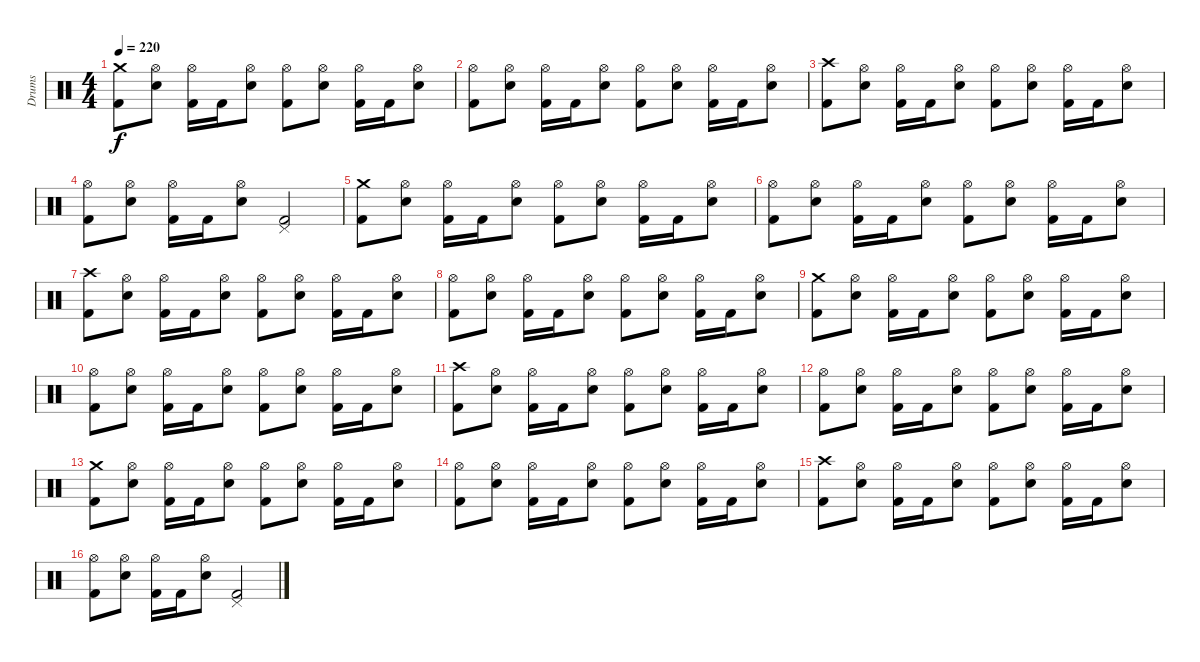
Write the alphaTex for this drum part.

\track ("Drums" "Drums") {instrument percussion}
\staff {score}
\articulation defaults
\ts (4 4)
\tempo 220
\clef neutral
\ks c
("Crash medium (hit)" "Kick (hit) 2").8{dy f} ("Hi-Hat (open)" "Electric Snare (hit)").8 ("Hi-Hat (open)" "Kick (hit) 2").16 "Kick (hit) 2".16 ("Hi-Hat (open)" "Electric Snare (hit)").8 ("Hi-Hat (open)" "Kick (hit) 2").8 ("Hi-Hat (open)" "Electric Snare (hit)").8 ("Hi-Hat (open)" "Kick (hit) 2").16 "Kick (hit) 2".16 ("Hi-Hat (open)" "Electric Snare (hit)").8 |
("Hi-Hat (open)" "Kick (hit) 2").8 ("Hi-Hat (open)" "Electric Snare (hit)").8 ("Hi-Hat (open)" "Kick (hit) 2").16 "Kick (hit) 2".16 ("Hi-Hat (open)" "Electric Snare (hit)").8 ("Hi-Hat (open)" "Kick (hit) 2").8 ("Hi-Hat (open)" "Electric Snare (hit)").8 ("Hi-Hat (open)" "Kick (hit) 2").16 "Kick (hit) 2".16 ("Hi-Hat (open)" "Electric Snare (hit)").8 |
("Crash high (hit)" "Kick (hit) 2").8 ("Hi-Hat (open)" "Electric Snare (hit)").8 ("Hi-Hat (open)" "Kick (hit) 2").16 "Kick (hit) 2".16 ("Hi-Hat (open)" "Electric Snare (hit)").8 ("Hi-Hat (open)" "Kick (hit) 2").8 ("Hi-Hat (open)" "Electric Snare (hit)").8 ("Hi-Hat (open)" "Kick (hit) 2").16 "Kick (hit) 2".16 ("Hi-Hat (open)" "Electric Snare (hit)").8 |
("Hi-Hat (open)" "Kick (hit) 2").8 ("Hi-Hat (open)" "Electric Snare (hit)").8 ("Hi-Hat (open)" "Kick (hit) 2").16 "Kick (hit) 2".16 ("Hi-Hat (open)" "Electric Snare (hit)").8 ("Pedal Hi-Hat (hit)" "Kick (hit) 2").2 |
("Crash medium (hit)" "Kick (hit) 2").8 ("Hi-Hat (open)" "Electric Snare (hit)").8 ("Hi-Hat (open)" "Kick (hit) 2").16 "Kick (hit) 2".16 ("Hi-Hat (open)" "Electric Snare (hit)").8 ("Hi-Hat (open)" "Kick (hit) 2").8 ("Hi-Hat (open)" "Electric Snare (hit)").8 ("Hi-Hat (open)" "Kick (hit) 2").16 "Kick (hit) 2".16 ("Hi-Hat (open)" "Electric Snare (hit)").8 |
("Hi-Hat (open)" "Kick (hit) 2").8 ("Hi-Hat (open)" "Electric Snare (hit)").8 ("Hi-Hat (open)" "Kick (hit) 2").16 "Kick (hit) 2".16 ("Hi-Hat (open)" "Electric Snare (hit)").8 ("Hi-Hat (open)" "Kick (hit) 2").8 ("Hi-Hat (open)" "Electric Snare (hit)").8 ("Hi-Hat (open)" "Kick (hit) 2").16 "Kick (hit) 2".16 ("Hi-Hat (open)" "Electric Snare (hit)").8 |
("Crash high (hit)" "Kick (hit) 2").8 ("Hi-Hat (open)" "Electric Snare (hit)").8 ("Hi-Hat (open)" "Kick (hit) 2").16 "Kick (hit) 2".16 ("Hi-Hat (open)" "Electric Snare (hit)").8 ("Hi-Hat (open)" "Kick (hit) 2").8 ("Hi-Hat (open)" "Electric Snare (hit)").8 ("Hi-Hat (open)" "Kick (hit) 2").16 "Kick (hit) 2".16 ("Hi-Hat (open)" "Electric Snare (hit)").8 |
("Hi-Hat (open)" "Kick (hit) 2").8 ("Hi-Hat (open)" "Electric Snare (hit)").8 ("Hi-Hat (open)" "Kick (hit) 2").16 "Kick (hit) 2".16 ("Hi-Hat (open)" "Electric Snare (hit)").8 ("Hi-Hat (open)" "Kick (hit) 2").8 ("Hi-Hat (open)" "Electric Snare (hit)").8 ("Hi-Hat (open)" "Kick (hit) 2").16 "Kick (hit) 2".16 ("Hi-Hat (open)" "Electric Snare (hit)").8 |
("Crash medium (hit)" "Kick (hit) 2").8 ("Hi-Hat (open)" "Electric Snare (hit)").8 ("Hi-Hat (open)" "Kick (hit) 2").16 "Kick (hit) 2".16 ("Hi-Hat (open)" "Electric Snare (hit)").8 ("Hi-Hat (open)" "Kick (hit) 2").8 ("Hi-Hat (open)" "Electric Snare (hit)").8 ("Hi-Hat (open)" "Kick (hit) 2").16 "Kick (hit) 2".16 ("Hi-Hat (open)" "Electric Snare (hit)").8 |
("Hi-Hat (open)" "Kick (hit) 2").8 ("Hi-Hat (open)" "Electric Snare (hit)").8 ("Hi-Hat (open)" "Kick (hit) 2").16 "Kick (hit) 2".16 ("Hi-Hat (open)" "Electric Snare (hit)").8 ("Hi-Hat (open)" "Kick (hit) 2").8 ("Hi-Hat (open)" "Electric Snare (hit)").8 ("Hi-Hat (open)" "Kick (hit) 2").16 "Kick (hit) 2".16 ("Hi-Hat (open)" "Electric Snare (hit)").8 |
("Crash high (hit)" "Kick (hit) 2").8 ("Hi-Hat (open)" "Electric Snare (hit)").8 ("Hi-Hat (open)" "Kick (hit) 2").16 "Kick (hit) 2".16 ("Hi-Hat (open)" "Electric Snare (hit)").8 ("Hi-Hat (open)" "Kick (hit) 2").8 ("Hi-Hat (open)" "Electric Snare (hit)").8 ("Hi-Hat (open)" "Kick (hit) 2").16 "Kick (hit) 2".16 ("Hi-Hat (open)" "Electric Snare (hit)").8 |
("Hi-Hat (open)" "Kick (hit) 2").8 ("Hi-Hat (open)" "Electric Snare (hit)").8 ("Hi-Hat (open)" "Kick (hit) 2").16 "Kick (hit) 2".16 ("Hi-Hat (open)" "Electric Snare (hit)").8 ("Hi-Hat (open)" "Kick (hit) 2").8 ("Hi-Hat (open)" "Electric Snare (hit)").8 ("Hi-Hat (open)" "Kick (hit) 2").16 "Kick (hit) 2".16 ("Hi-Hat (open)" "Electric Snare (hit)").8 |
("Crash medium (hit)" "Kick (hit) 2").8 ("Hi-Hat (open)" "Electric Snare (hit)").8 ("Hi-Hat (open)" "Kick (hit) 2").16 "Kick (hit) 2".16 ("Hi-Hat (open)" "Electric Snare (hit)").8 ("Hi-Hat (open)" "Kick (hit) 2").8 ("Hi-Hat (open)" "Electric Snare (hit)").8 ("Hi-Hat (open)" "Kick (hit) 2").16 "Kick (hit) 2".16 ("Hi-Hat (open)" "Electric Snare (hit)").8 |
("Hi-Hat (open)" "Kick (hit) 2").8 ("Hi-Hat (open)" "Electric Snare (hit)").8 ("Hi-Hat (open)" "Kick (hit) 2").16 "Kick (hit) 2".16 ("Hi-Hat (open)" "Electric Snare (hit)").8 ("Hi-Hat (open)" "Kick (hit) 2").8 ("Hi-Hat (open)" "Electric Snare (hit)").8 ("Hi-Hat (open)" "Kick (hit) 2").16 "Kick (hit) 2".16 ("Hi-Hat (open)" "Electric Snare (hit)").8 |
("Crash high (hit)" "Kick (hit) 2").8 ("Hi-Hat (open)" "Electric Snare (hit)").8 ("Hi-Hat (open)" "Kick (hit) 2").16 "Kick (hit) 2".16 ("Hi-Hat (open)" "Electric Snare (hit)").8 ("Hi-Hat (open)" "Kick (hit) 2").8 ("Hi-Hat (open)" "Electric Snare (hit)").8 ("Hi-Hat (open)" "Kick (hit) 2").16 "Kick (hit) 2".16 ("Hi-Hat (open)" "Electric Snare (hit)").8 |
("Hi-Hat (open)" "Kick (hit) 2").8 ("Hi-Hat (open)" "Electric Snare (hit)").8 ("Hi-Hat (open)" "Kick (hit) 2").16 "Kick (hit) 2".16 ("Hi-Hat (open)" "Electric Snare (hit)").8 ("Pedal Hi-Hat (hit)" "Kick (hit) 2").2
